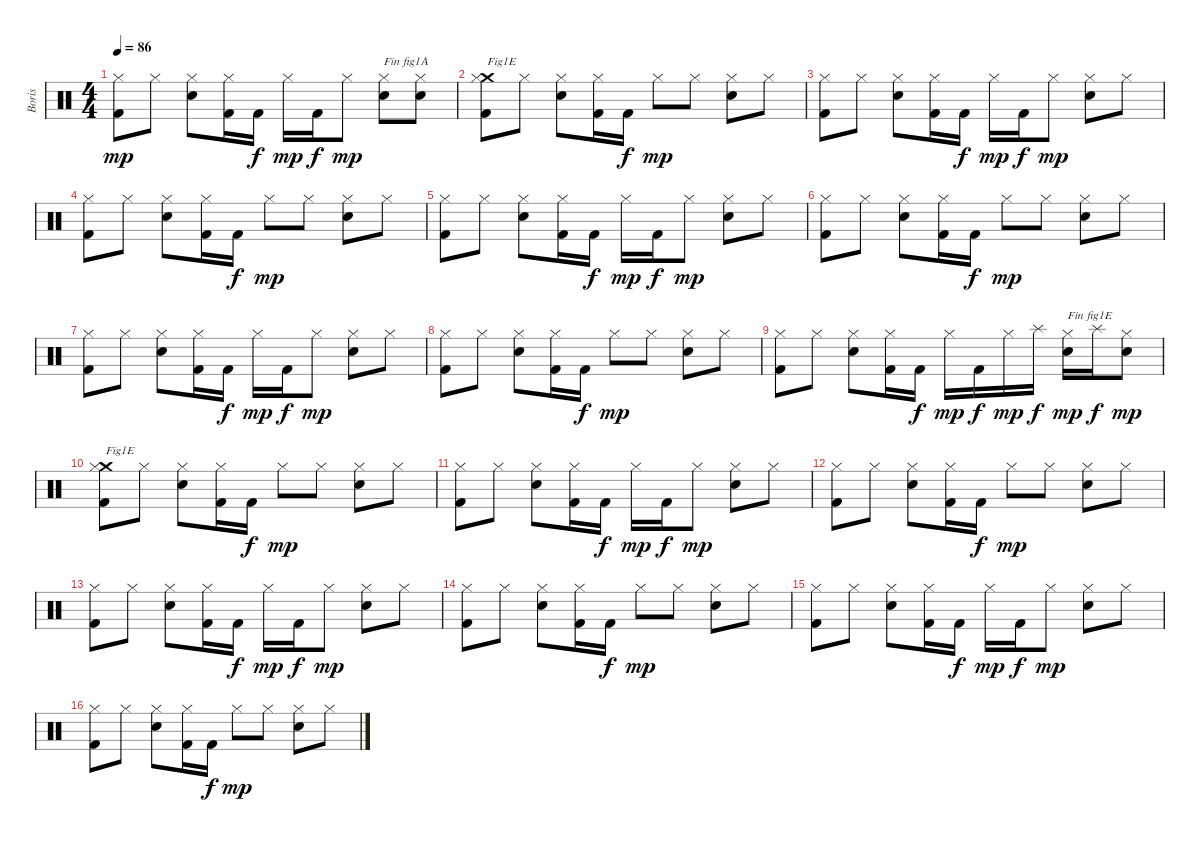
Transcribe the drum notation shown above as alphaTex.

\track ("Boris" "Boris") {instrument percussion}
\staff {score}
\articulation defaults
\ts (4 4)
\tempo 86
\clef neutral
\ks c
("Kick (hit) 2" "Hi-Hat (closed)").8{dy mp} "Hi-Hat (closed)".8 ("Electric Snare (hit)" "Hi-Hat (closed)").8 ("Kick (hit) 2" "Hi-Hat (closed)").16 "Kick (hit) 2".16{dy f} "Hi-Hat (closed)".16{dy mp} "Kick (hit) 2".16{dy f} "Hi-Hat (closed)".8{dy mp} ("Electric Snare (hit)" "Hi-Hat (closed)").8{txt "Fin fig1A"} ("Electric Snare (hit)" "Hi-Hat (closed)").8 |
("Kick (hit) 2" "Crash medium (hit)" "Hi-Hat (closed)").8{txt "Fig1E"} "Hi-Hat (closed)".8 ("Electric Snare (hit)" "Hi-Hat (closed)").8 ("Kick (hit) 2" "Hi-Hat (closed)").16 "Kick (hit) 2".16{dy f} "Hi-Hat (closed)".8{dy mp} "Hi-Hat (closed)".8 ("Electric Snare (hit)" "Hi-Hat (closed)").8 "Hi-Hat (closed)".8 |
("Kick (hit) 2" "Hi-Hat (closed)").8 "Hi-Hat (closed)".8 ("Electric Snare (hit)" "Hi-Hat (closed)").8 ("Kick (hit) 2" "Hi-Hat (closed)").16 "Kick (hit) 2".16{dy f} "Hi-Hat (closed)".16{dy mp} "Kick (hit) 2".16{dy f} "Hi-Hat (closed)".8{dy mp} ("Electric Snare (hit)" "Hi-Hat (closed)").8 "Hi-Hat (closed)".8 |
("Kick (hit) 2" "Hi-Hat (closed)").8 "Hi-Hat (closed)".8 ("Electric Snare (hit)" "Hi-Hat (closed)").8 ("Kick (hit) 2" "Hi-Hat (closed)").16 "Kick (hit) 2".16{dy f} "Hi-Hat (closed)".8{dy mp} "Hi-Hat (closed)".8 ("Electric Snare (hit)" "Hi-Hat (closed)").8 "Hi-Hat (closed)".8 |
("Kick (hit) 2" "Hi-Hat (closed)").8 "Hi-Hat (closed)".8 ("Electric Snare (hit)" "Hi-Hat (closed)").8 ("Kick (hit) 2" "Hi-Hat (closed)").16 "Kick (hit) 2".16{dy f} "Hi-Hat (closed)".16{dy mp} "Kick (hit) 2".16{dy f} "Hi-Hat (closed)".8{dy mp} ("Electric Snare (hit)" "Hi-Hat (closed)").8 "Hi-Hat (closed)".8 |
("Kick (hit) 2" "Hi-Hat (closed)").8 "Hi-Hat (closed)".8 ("Electric Snare (hit)" "Hi-Hat (closed)").8 ("Kick (hit) 2" "Hi-Hat (closed)").16 "Kick (hit) 2".16{dy f} "Hi-Hat (closed)".8{dy mp} "Hi-Hat (closed)".8 ("Electric Snare (hit)" "Hi-Hat (closed)").8 "Hi-Hat (closed)".8 |
("Kick (hit) 2" "Hi-Hat (closed)").8 "Hi-Hat (closed)".8 ("Electric Snare (hit)" "Hi-Hat (closed)").8 ("Kick (hit) 2" "Hi-Hat (closed)").16 "Kick (hit) 2".16{dy f} "Hi-Hat (closed)".16{dy mp} "Kick (hit) 2".16{dy f} "Hi-Hat (closed)".8{dy mp} ("Electric Snare (hit)" "Hi-Hat (closed)").8 "Hi-Hat (closed)".8 |
("Kick (hit) 2" "Hi-Hat (closed)").8 "Hi-Hat (closed)".8 ("Electric Snare (hit)" "Hi-Hat (closed)").8 ("Kick (hit) 2" "Hi-Hat (closed)").16 "Kick (hit) 2".16{dy f} "Hi-Hat (closed)".8{dy mp} "Hi-Hat (closed)".8 ("Electric Snare (hit)" "Hi-Hat (closed)").8 "Hi-Hat (closed)".8 |
("Kick (hit) 2" "Hi-Hat (closed)").8 "Hi-Hat (closed)".8 ("Electric Snare (hit)" "Hi-Hat (closed)").8 ("Kick (hit) 2" "Hi-Hat (closed)").16 "Kick (hit) 2".16{dy f} "Hi-Hat (closed)".16{dy mp} "Kick (hit) 2".16{dy f} "Hi-Hat (closed)".16{dy mp} "Splash (hit)".16{dy f} ("Electric Snare (hit)" "Hi-Hat (closed)").16{txt "Fin fig1E" dy mp} "Splash (hit)".16{dy f} ("Electric Snare (hit)" "Hi-Hat (closed)").8{dy mp} |
("Kick (hit) 2" "Crash medium (hit)" "Hi-Hat (closed)").8{txt "Fig1E"} "Hi-Hat (closed)".8 ("Electric Snare (hit)" "Hi-Hat (closed)").8 ("Kick (hit) 2" "Hi-Hat (closed)").16 "Kick (hit) 2".16{dy f} "Hi-Hat (closed)".8{dy mp} "Hi-Hat (closed)".8 ("Electric Snare (hit)" "Hi-Hat (closed)").8 "Hi-Hat (closed)".8 |
("Kick (hit) 2" "Hi-Hat (closed)").8 "Hi-Hat (closed)".8 ("Electric Snare (hit)" "Hi-Hat (closed)").8 ("Kick (hit) 2" "Hi-Hat (closed)").16 "Kick (hit) 2".16{dy f} "Hi-Hat (closed)".16{dy mp} "Kick (hit) 2".16{dy f} "Hi-Hat (closed)".8{dy mp} ("Electric Snare (hit)" "Hi-Hat (closed)").8 "Hi-Hat (closed)".8 |
("Kick (hit) 2" "Hi-Hat (closed)").8 "Hi-Hat (closed)".8 ("Electric Snare (hit)" "Hi-Hat (closed)").8 ("Kick (hit) 2" "Hi-Hat (closed)").16 "Kick (hit) 2".16{dy f} "Hi-Hat (closed)".8{dy mp} "Hi-Hat (closed)".8 ("Electric Snare (hit)" "Hi-Hat (closed)").8 "Hi-Hat (closed)".8 |
("Kick (hit) 2" "Hi-Hat (closed)").8 "Hi-Hat (closed)".8 ("Electric Snare (hit)" "Hi-Hat (closed)").8 ("Kick (hit) 2" "Hi-Hat (closed)").16 "Kick (hit) 2".16{dy f} "Hi-Hat (closed)".16{dy mp} "Kick (hit) 2".16{dy f} "Hi-Hat (closed)".8{dy mp} ("Electric Snare (hit)" "Hi-Hat (closed)").8 "Hi-Hat (closed)".8 |
("Kick (hit) 2" "Hi-Hat (closed)").8 "Hi-Hat (closed)".8 ("Electric Snare (hit)" "Hi-Hat (closed)").8 ("Kick (hit) 2" "Hi-Hat (closed)").16 "Kick (hit) 2".16{dy f} "Hi-Hat (closed)".8{dy mp} "Hi-Hat (closed)".8 ("Electric Snare (hit)" "Hi-Hat (closed)").8 "Hi-Hat (closed)".8 |
("Kick (hit) 2" "Hi-Hat (closed)").8 "Hi-Hat (closed)".8 ("Electric Snare (hit)" "Hi-Hat (closed)").8 ("Kick (hit) 2" "Hi-Hat (closed)").16 "Kick (hit) 2".16{dy f} "Hi-Hat (closed)".16{dy mp} "Kick (hit) 2".16{dy f} "Hi-Hat (closed)".8{dy mp} ("Electric Snare (hit)" "Hi-Hat (closed)").8 "Hi-Hat (closed)".8 |
("Kick (hit) 2" "Hi-Hat (closed)").8 "Hi-Hat (closed)".8 ("Electric Snare (hit)" "Hi-Hat (closed)").8 ("Kick (hit) 2" "Hi-Hat (closed)").16 "Kick (hit) 2".16{dy f} "Hi-Hat (closed)".8{dy mp} "Hi-Hat (closed)".8 ("Electric Snare (hit)" "Hi-Hat (closed)").8 "Hi-Hat (closed)".8
